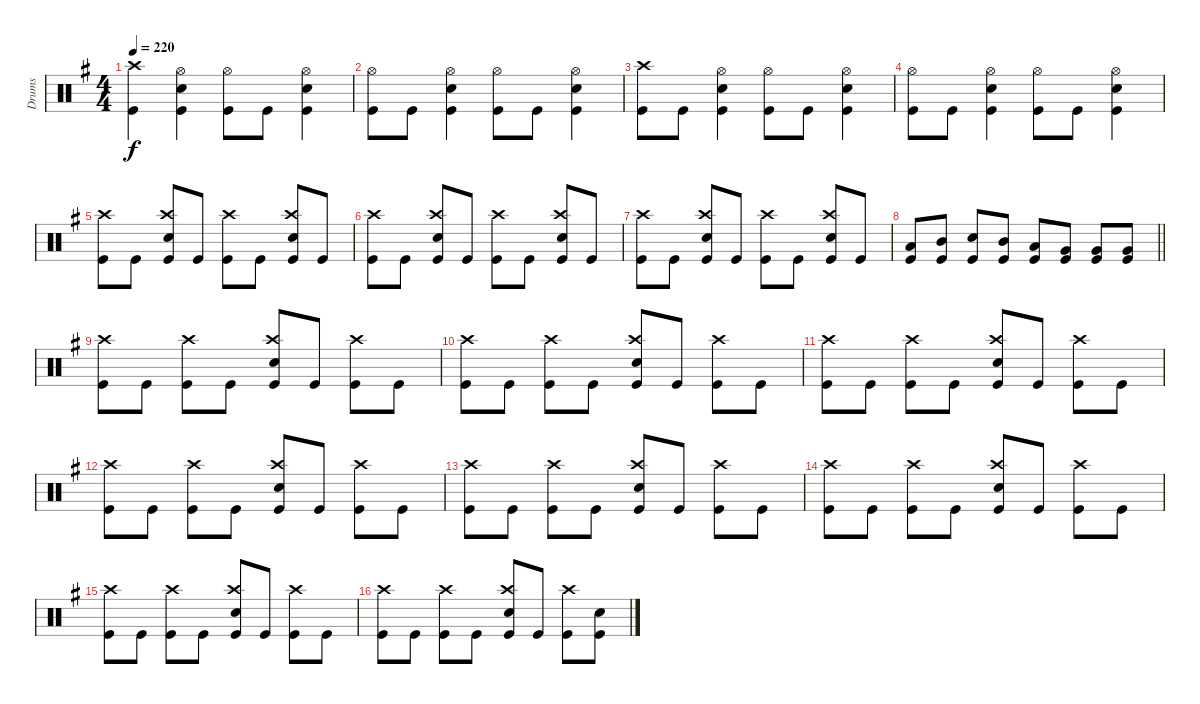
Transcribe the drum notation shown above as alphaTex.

\track ("Drums" "Drums") {instrument percussion}
\staff {score}
\articulation defaults
\ts (4 4)
\tempo 220
\clef neutral
\ks eminor
("Kick (hit)" "Crash high (hit)").4{dy f} ("Snare (hit) 2" "Kick (hit)" "Hi-Hat (open)").4 ("Kick (hit)" "Hi-Hat (open)").8 "Kick (hit)".8 ("Kick (hit)" "Snare (hit) 2" "Hi-Hat (open)").4 |
("Kick (hit)" "Hi-Hat (open)").8 "Kick (hit)".8 ("Kick (hit)" "Snare (hit) 2" "Hi-Hat (open)").4 ("Kick (hit)" "Hi-Hat (open)").8 "Kick (hit)".8 ("Kick (hit)" "Snare (hit) 2" "Hi-Hat (open)").4 |
("Kick (hit)" "Crash high (hit)").8 "Kick (hit)".8 ("Snare (hit) 2" "Kick (hit)" "Hi-Hat (open)").4 ("Kick (hit)" "Hi-Hat (open)").8 "Kick (hit)".8 ("Kick (hit)" "Snare (hit) 2" "Hi-Hat (open)").4 |
("Kick (hit)" "Hi-Hat (open)").8 "Kick (hit)".8 ("Kick (hit)" "Snare (hit) 2" "Hi-Hat (open)").4 ("Kick (hit)" "Hi-Hat (open)").8 "Kick (hit)".8 ("Kick (hit)" "Snare (hit) 2" "Hi-Hat (open)").4 |
("Kick (hit)" "Crash high (hit)").8 "Kick (hit)".8 ("Snare (hit) 2" "Kick (hit)" "Crash high (hit)").8 "Kick (hit)".8 ("Kick (hit)" "Crash high (hit)").8 "Kick (hit)".8 ("Kick (hit)" "Snare (hit) 2" "Crash high (hit)").8 "Kick (hit)".8 |
("Kick (hit)" "Crash high (hit)").8 "Kick (hit)".8 ("Kick (hit)" "Snare (hit) 2" "Crash high (hit)").8 "Kick (hit)".8 ("Kick (hit)" "Crash high (hit)").8 "Kick (hit)".8 ("Kick (hit)" "Snare (hit) 2" "Crash high (hit)").8 "Kick (hit)".8 |
("Kick (hit)" "Crash high (hit)").8 "Kick (hit)".8 ("Kick (hit)" "Snare (hit) 2" "Crash high (hit)").8 "Kick (hit)".8 ("Kick (hit)" "Crash high (hit)").8 "Kick (hit)".8 ("Kick (hit)" "Snare (hit) 2" "Crash high (hit)").8 "Kick (hit)".8 |
\barLineRight lightlight
("Low Tom (hit)" "Kick (hit)").8 ("Kick (hit)" "Mid Tom (hit)").8 ("Snare (hit) 2" "Kick (hit)").8 ("Kick (hit)" "Mid Tom (hit)").8 ("Kick (hit)" "Low Tom (hit)").8 ("Kick (hit)" "Very Low Tom (hit)").8 ("Kick (hit)" "Very Low Tom (hit)").8 ("Kick (hit)" "Very Low Tom (hit)").8 |
("Kick (hit)" "Crash high (hit)").8 "Kick (hit)".8 ("Kick (hit)" "Crash high (hit)").8 "Kick (hit)".8 ("Kick (hit)" "Snare (hit) 2" "Crash high (hit)").8 "Kick (hit)".8 ("Kick (hit)" "Crash high (hit)").8 "Kick (hit)".8 |
("Kick (hit)" "Crash high (hit)").8 "Kick (hit)".8 ("Kick (hit)" "Crash high (hit)").8 "Kick (hit)".8 ("Kick (hit)" "Snare (hit) 2" "Crash high (hit)").8 "Kick (hit)".8 ("Kick (hit)" "Crash high (hit)").8 "Kick (hit)".8 |
("Kick (hit)" "Crash high (hit)").8 "Kick (hit)".8 ("Kick (hit)" "Crash high (hit)").8 "Kick (hit)".8 ("Kick (hit)" "Snare (hit) 2" "Crash high (hit)").8 "Kick (hit)".8 ("Kick (hit)" "Crash high (hit)").8 "Kick (hit)".8 |
("Kick (hit)" "Crash high (hit)").8 "Kick (hit)".8 ("Kick (hit)" "Crash high (hit)").8 "Kick (hit)".8 ("Kick (hit)" "Snare (hit) 2" "Crash high (hit)").8 "Kick (hit)".8 ("Kick (hit)" "Crash high (hit)").8 "Kick (hit)".8 |
("Kick (hit)" "Crash high (hit)").8 "Kick (hit)".8 ("Kick (hit)" "Crash high (hit)").8 "Kick (hit)".8 ("Kick (hit)" "Snare (hit) 2" "Crash high (hit)").8 "Kick (hit)".8 ("Kick (hit)" "Crash high (hit)").8 "Kick (hit)".8 |
("Kick (hit)" "Crash high (hit)").8 "Kick (hit)".8 ("Kick (hit)" "Crash high (hit)").8 "Kick (hit)".8 ("Kick (hit)" "Snare (hit) 2" "Crash high (hit)").8 "Kick (hit)".8 ("Kick (hit)" "Crash high (hit)").8 "Kick (hit)".8 |
("Kick (hit)" "Crash high (hit)").8 "Kick (hit)".8 ("Kick (hit)" "Crash high (hit)").8 "Kick (hit)".8 ("Kick (hit)" "Snare (hit) 2" "Crash high (hit)").8 "Kick (hit)".8 ("Kick (hit)" "Crash high (hit)").8 "Kick (hit)".8 |
("Kick (hit)" "Crash high (hit)").8 "Kick (hit)".8 ("Kick (hit)" "Crash high (hit)").8 "Kick (hit)".8 ("Kick (hit)" "Snare (hit) 2" "Crash high (hit)").8 "Kick (hit)".8 ("Kick (hit)" "Crash high (hit)").8 ("Kick (hit)" "Snare (hit) 2").8
